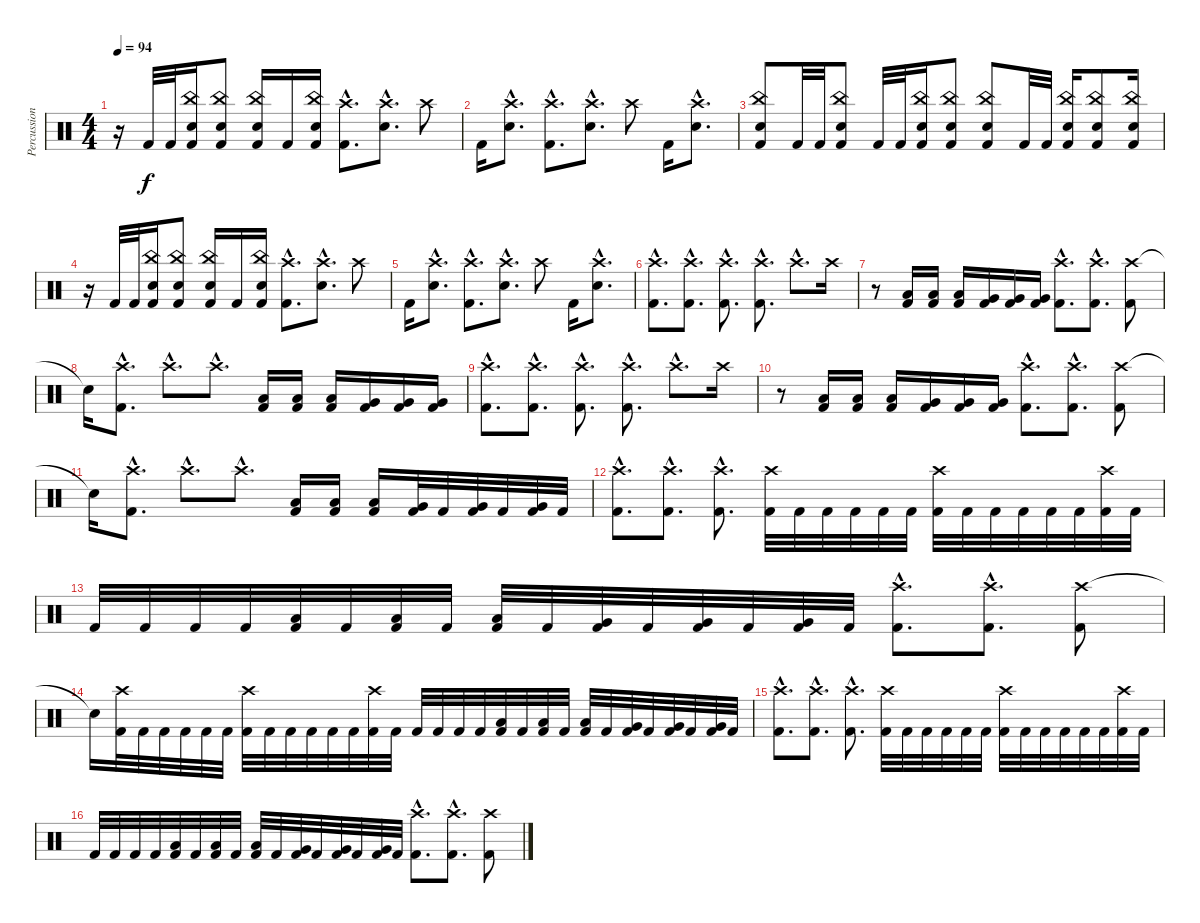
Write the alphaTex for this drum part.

\track ("Percussion" "Percussion") {instrument percussion}
\staff {score}
\articulation defaults
\ts (4 4)
\tempo 94
\clef neutral
\ks c
r.16{dy f} "Kick (hit) 2".32 "Kick (hit) 2".32 ("China (hit)" "Electric Snare (hit)" "Kick (hit) 2").16 ("China (hit)" "Electric Snare (hit)" "Kick (hit) 2").8 ("China (hit)" "Electric Snare (hit)" "Kick (hit) 2").16 "Kick (hit) 2".16 ("China (hit)" "Electric Snare (hit)" "Kick (hit) 2").16 ("Crash high (hit)"{hac} "Kick (hit) 2"{hac}).8{d} ("Crash high (hit)"{hac} "Electric Snare (hit)"{hac}).8{d} "Crash high (hit)".8 |
"Kick (hit) 2".16 ("Crash high (hit)"{hac} "Electric Snare (hit)"{hac}).8{d} ("Crash high (hit)"{hac} "Kick (hit) 2"{hac}).8{d} ("Crash high (hit)"{hac} "Electric Snare (hit)"{hac}).8{d} "Crash high (hit)".8 "Kick (hit) 2".16 ("Crash high (hit)"{hac} "Electric Snare (hit)"{hac}).8{d} |
("China (hit)" "Electric Snare (hit)" "Kick (hit) 2").8 "Kick (hit) 2".32 "Kick (hit) 2".32 ("China (hit)" "Electric Snare (hit)" "Kick (hit) 2").8 "Kick (hit) 2".32 "Kick (hit) 2".32 ("China (hit)" "Electric Snare (hit)" "Kick (hit) 2").16 ("China (hit)" "Electric Snare (hit)" "Kick (hit) 2").8 ("China (hit)" "Electric Snare (hit)" "Kick (hit) 2").8 "Kick (hit) 2".32 "Kick (hit) 2".32 ("China (hit)" "Electric Snare (hit)" "Kick (hit) 2").16 ("China (hit)" "Electric Snare (hit)" "Kick (hit) 2").8 ("China (hit)" "Electric Snare (hit)" "Kick (hit) 2").16 |
r.16 "Kick (hit) 2".32 "Kick (hit) 2".32 ("China (hit)" "Electric Snare (hit)" "Kick (hit) 2").16 ("China (hit)" "Electric Snare (hit)" "Kick (hit) 2").8 ("China (hit)" "Electric Snare (hit)" "Kick (hit) 2").16 "Kick (hit) 2".16 ("China (hit)" "Electric Snare (hit)" "Kick (hit) 2").16 ("Crash high (hit)"{hac} "Kick (hit) 2"{hac}).8{d} ("Crash high (hit)"{hac} "Electric Snare (hit)"{hac}).8{d} "Crash high (hit)".8 |
"Kick (hit) 2".16 ("Crash high (hit)"{hac} "Electric Snare (hit)"{hac}).8{d} ("Crash high (hit)"{hac} "Kick (hit) 2"{hac}).8{d} ("Crash high (hit)"{hac} "Electric Snare (hit)"{hac}).8{d} "Crash high (hit)".8 "Kick (hit) 2".16 ("Crash high (hit)"{hac} "Electric Snare (hit)"{hac}).8{d} |
("Crash high (hit)"{hac} "Kick (hit) 2"{hac}).8{d} ("Crash high (hit)"{hac} "Kick (hit) 2"{hac}).8{d} ("Crash high (hit)"{hac} "Kick (hit) 2"{hac}).8{d} ("Crash high (hit)"{hac} "Kick (hit) 2"{hac}).8{d} "Crash high (hit)"{hac}.8{d} "Crash high (hit)".16 |
r.8 ("Low Tom (hit)" "Kick (hit) 2").16 ("Low Tom (hit)" "Kick (hit) 2").16 ("Low Tom (hit)" "Kick (hit) 2").16 ("Very Low Tom (hit)" "Kick (hit) 2").16 ("Very Low Tom (hit)" "Kick (hit) 2").16 ("Very Low Tom (hit)" "Kick (hit) 2").16 ("Crash high (hit)"{hac} "Kick (hit) 2"{hac}).8{d} ("Crash high (hit)"{hac} "Kick (hit) 2"{hac}).8{d} ("Crash high (hit)" "Kick (hit) 2").8 |
"Snare (hit)"{t}.16 ("Crash high (hit)"{hac} "Kick (hit) 2"{hac}).8{d} "Crash high (hit)"{hac}.8{d} "Crash high (hit)"{hac}.8{d} ("Low Tom (hit)" "Kick (hit) 2").16 ("Low Tom (hit)" "Kick (hit) 2").16 ("Low Tom (hit)" "Kick (hit) 2").16 ("Very Low Tom (hit)" "Kick (hit) 2").16 ("Very Low Tom (hit)" "Kick (hit) 2").16 ("Very Low Tom (hit)" "Kick (hit) 2").16 |
("Crash high (hit)"{hac} "Kick (hit) 2"{hac}).8{d} ("Crash high (hit)"{hac} "Kick (hit) 2"{hac}).8{d} ("Crash high (hit)"{hac} "Kick (hit) 2"{hac}).8{d} ("Crash high (hit)"{hac} "Kick (hit) 2"{hac}).8{d} "Crash high (hit)"{hac}.8{d} "Crash high (hit)".16 |
r.8 ("Low Tom (hit)" "Kick (hit) 2").16 ("Low Tom (hit)" "Kick (hit) 2").16 ("Low Tom (hit)" "Kick (hit) 2").16 ("Very Low Tom (hit)" "Kick (hit) 2").16 ("Very Low Tom (hit)" "Kick (hit) 2").16 ("Very Low Tom (hit)" "Kick (hit) 2").16 ("Crash high (hit)"{hac} "Kick (hit) 2"{hac}).8{d} ("Crash high (hit)"{hac} "Kick (hit) 2"{hac}).8{d} ("Crash high (hit)" "Kick (hit) 2").8 |
"Snare (hit)"{t}.16 ("Crash high (hit)"{hac} "Kick (hit) 2"{hac}).8{d} "Crash high (hit)"{hac}.8{d} "Crash high (hit)"{hac}.8{d} ("Low Tom (hit)" "Kick (hit) 2").16 ("Low Tom (hit)" "Kick (hit) 2").16 ("Low Tom (hit)" "Kick (hit) 2").16 ("Very Low Tom (hit)" "Kick (hit) 2").32 "Kick (hit) 2".32 ("Very Low Tom (hit)" "Kick (hit) 2").32 "Kick (hit) 2".32 ("Very Low Tom (hit)" "Kick (hit) 2").32 "Kick (hit) 2".32 |
("Crash high (hit)"{hac} "Kick (hit) 2"{hac}).8{d} ("Crash high (hit)"{hac} "Kick (hit) 2"{hac}).8{d} ("Crash high (hit)"{hac} "Kick (hit) 2"{hac}).8{d} ("Crash high (hit)" "Kick (hit) 2").32 "Kick (hit) 2".32 "Kick (hit) 2".32 "Kick (hit) 2".32 "Kick (hit) 2".32 "Kick (hit) 2".32 ("Crash high (hit)" "Kick (hit) 2").32 "Kick (hit) 2".32 "Kick (hit) 2".32 "Kick (hit) 2".32 "Kick (hit) 2".32 "Kick (hit) 2".32 ("Crash high (hit)" "Kick (hit) 2").32 "Kick (hit) 2".32 |
"Kick (hit) 2".32 "Kick (hit) 2".32 "Kick (hit) 2".32 "Kick (hit) 2".32 ("Low Tom (hit)" "Kick (hit) 2").32 "Kick (hit) 2".32 ("Low Tom (hit)" "Kick (hit) 2").32 "Kick (hit) 2".32 ("Low Tom (hit)" "Kick (hit) 2").32 "Kick (hit) 2".32 ("Very Low Tom (hit)" "Kick (hit) 2").32 "Kick (hit) 2".32 ("Very Low Tom (hit)" "Kick (hit) 2").32 "Kick (hit) 2".32 ("Very Low Tom (hit)" "Kick (hit) 2").32 "Kick (hit) 2".32 ("Crash high (hit)"{hac} "Kick (hit) 2"{hac}).8{d} ("Crash high (hit)"{hac} "Kick (hit) 2"{hac}).8{d} ("Crash high (hit)" "Kick (hit) 2").8 |
"Snare (hit)"{t}.16 ("Crash high (hit)" "Kick (hit) 2").32 "Kick (hit) 2".32 "Kick (hit) 2".32 "Kick (hit) 2".32 "Kick (hit) 2".32 "Kick (hit) 2".32 ("Crash high (hit)" "Kick (hit) 2").32 "Kick (hit) 2".32 "Kick (hit) 2".32 "Kick (hit) 2".32 "Kick (hit) 2".32 "Kick (hit) 2".32 ("Crash high (hit)" "Kick (hit) 2").32 "Kick (hit) 2".32 "Kick (hit) 2".32 "Kick (hit) 2".32 "Kick (hit) 2".32 "Kick (hit) 2".32 ("Low Tom (hit)" "Kick (hit) 2").32 "Kick (hit) 2".32 ("Low Tom (hit)" "Kick (hit) 2").32 "Kick (hit) 2".32 ("Low Tom (hit)" "Kick (hit) 2").32 "Kick (hit) 2".32 ("Very Low Tom (hit)" "Kick (hit) 2").32 "Kick (hit) 2".32 ("Very Low Tom (hit)" "Kick (hit) 2").32 "Kick (hit) 2".32 ("Very Low Tom (hit)" "Kick (hit) 2").32 "Kick (hit) 2".32 |
("Crash high (hit)"{hac} "Kick (hit) 2"{hac}).8{d} ("Crash high (hit)"{hac} "Kick (hit) 2"{hac}).8{d} ("Crash high (hit)"{hac} "Kick (hit) 2"{hac}).8{d} ("Crash high (hit)" "Kick (hit) 2").32 "Kick (hit) 2".32 "Kick (hit) 2".32 "Kick (hit) 2".32 "Kick (hit) 2".32 "Kick (hit) 2".32 ("Crash high (hit)" "Kick (hit) 2").32 "Kick (hit) 2".32 "Kick (hit) 2".32 "Kick (hit) 2".32 "Kick (hit) 2".32 "Kick (hit) 2".32 ("Crash high (hit)" "Kick (hit) 2").32 "Kick (hit) 2".32 |
"Kick (hit) 2".32 "Kick (hit) 2".32 "Kick (hit) 2".32 "Kick (hit) 2".32 ("Low Tom (hit)" "Kick (hit) 2").32 "Kick (hit) 2".32 ("Low Tom (hit)" "Kick (hit) 2").32 "Kick (hit) 2".32 ("Low Tom (hit)" "Kick (hit) 2").32 "Kick (hit) 2".32 ("Very Low Tom (hit)" "Kick (hit) 2").32 "Kick (hit) 2".32 ("Very Low Tom (hit)" "Kick (hit) 2").32 "Kick (hit) 2".32 ("Very Low Tom (hit)" "Kick (hit) 2").32 "Kick (hit) 2".32 ("Crash high (hit)"{hac} "Kick (hit) 2"{hac}).8{d} ("Crash high (hit)"{hac} "Kick (hit) 2"{hac}).8{d} ("Crash high (hit)" "Kick (hit) 2").8
